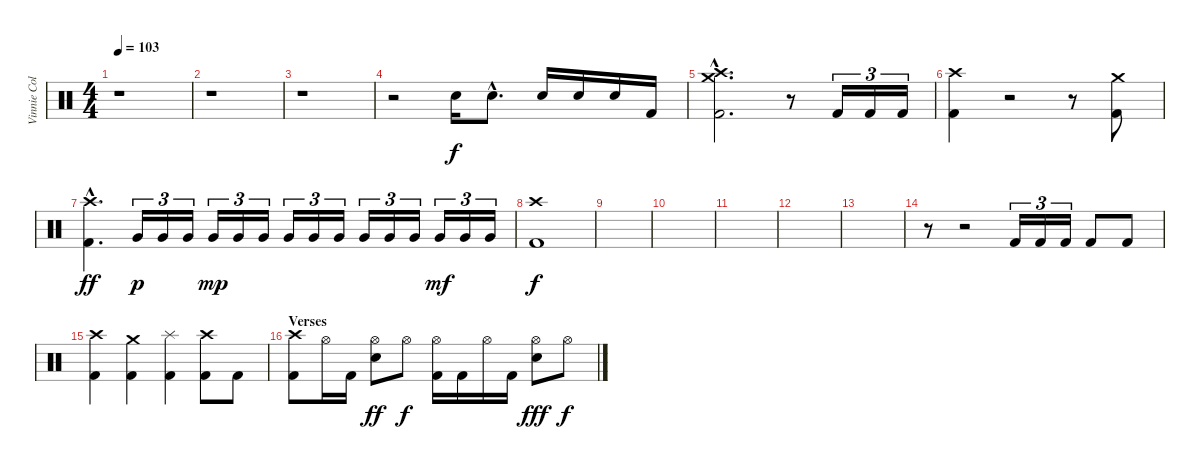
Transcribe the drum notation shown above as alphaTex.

\track ("Vinnie Colaiuta" "Vinnie Col") {instrument percussion}
\staff {score}
\articulation defaults
\ts (4 4)
\tempo 103
\clef neutral
\ks c
r.1{dy f} |
r.1 |
r.1 |
r.2 "Electric Snare (hit)".16 "Electric Snare (hit)"{hac}.8{d} "Electric Snare (hit)".16 "Electric Snare (hit)".16 "Electric Snare (hit)".16 "Kick (hit) 2".16 |
("Crash high (hit)"{hac} "Crash medium (hit)"{hac} "Kick (hit) 2"{hac}).2{d} r.8 "Kick (hit) 2".16{tu (3 2)} "Kick (hit) 2".16{tu (3 2)} "Kick (hit) 2".16{tu (3 2)} |
("Crash high (hit)" "Kick (hit) 2").4 r.2 r.8 ("Crash medium (hit)" "Kick (hit) 2").8 |
("Crash high (hit)"{hac} "Kick (hit) 2"{hac}).4{d dy ff} "Very Low Tom (hit)".16{tu (3 2) dy p} "Very Low Tom (hit)".16{tu (3 2)} "Very Low Tom (hit)".16{tu (3 2)} "Very Low Tom (hit)".16{tu (3 2) dy mp} "Very Low Tom (hit)".16{tu (3 2)} "Very Low Tom (hit)".16{tu (3 2)} "Very Low Tom (hit)".16{tu (3 2)} "Very Low Tom (hit)".16{tu (3 2)} "Very Low Tom (hit)".16{tu (3 2)} "Very Low Tom (hit)".16{tu (3 2)} "Very Low Tom (hit)".16{tu (3 2)} "Very Low Tom (hit)".16{tu (3 2)} "Very Low Tom (hit)".16{tu (3 2) dy mf} "Very Low Tom (hit)".16{tu (3 2)} "Very Low Tom (hit)".16{tu (3 2)} |
("Crash high (hit)" "Kick (hit) 2").1{dy f} |
|
|
|
|
|
r.8 r.2 "Kick (hit) 2".16{tu (3 2)} "Kick (hit) 2".16{tu (3 2)} "Kick (hit) 2".16{tu (3 2)} "Kick (hit) 2".8 "Kick (hit) 2".8 |
("Crash high (hit)" "Kick (hit) 2").4 ("Crash medium (hit)" "Kick (hit) 2").4 ("Splash (hit)" "Kick (hit) 2").4 ("Crash high (hit)" "Kick (hit) 2").8 "Kick (hit) 2".8 |
\section ("" "Verses")
("Crash high (hit)" "Kick (hit) 2").8 "Hi-Hat (open)".16 "Kick (hit) 2".16 ("Hi-Hat (open)" "Electric Snare (hit)").8{dy ff} "Hi-Hat (open)".8{dy f} ("Hi-Hat (open)" "Kick (hit) 2").16 "Kick (hit) 2".16 "Hi-Hat (open)".16 "Kick (hit) 2".16 ("Hi-Hat (open)" "Electric Snare (hit)").8{dy fff} "Hi-Hat (open)".8{dy f}
